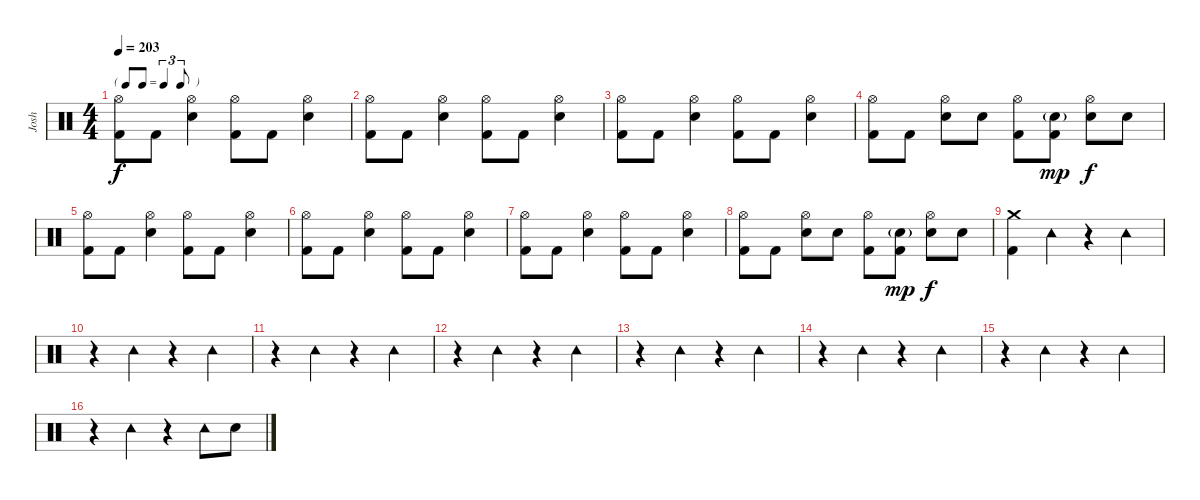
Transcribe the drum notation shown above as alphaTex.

\track ("Josh" "Josh") {instrument percussion}
\staff {score}
\articulation defaults
\ts (4 4)
\tf triplet8th
\tempo 203
\clef neutral
\ks c
("Hi-Hat (open)" "Kick (hit) 2").8{dy f} "Kick (hit) 2".8 ("Hi-Hat (open)" "Electric Snare (hit)").4 ("Hi-Hat (open)" "Kick (hit) 2").8 "Kick (hit) 2".8 ("Hi-Hat (open)" "Electric Snare (hit)").4 |
("Hi-Hat (open)" "Kick (hit) 2").8 "Kick (hit) 2".8 ("Hi-Hat (open)" "Electric Snare (hit)").4 ("Hi-Hat (open)" "Kick (hit) 2").8 "Kick (hit) 2".8 ("Hi-Hat (open)" "Electric Snare (hit)").4 |
("Hi-Hat (open)" "Kick (hit) 2").8 "Kick (hit) 2".8 ("Hi-Hat (open)" "Electric Snare (hit)").4 ("Hi-Hat (open)" "Kick (hit) 2").8 "Kick (hit) 2".8 ("Hi-Hat (open)" "Electric Snare (hit)").4 |
("Hi-Hat (open)" "Kick (hit) 2").8 "Kick (hit) 2".8 ("Hi-Hat (open)" "Electric Snare (hit)").8 "Electric Snare (hit)".8 ("Hi-Hat (open)" "Kick (hit) 2").8 ("Electric Snare (hit)"{g} "Kick (hit) 2").8{dy mp} ("Hi-Hat (open)" "Electric Snare (hit)").8{dy f} "Electric Snare (hit)".8 |
("Hi-Hat (open)" "Kick (hit) 2").8 "Kick (hit) 2".8 ("Hi-Hat (open)" "Electric Snare (hit)").4 ("Hi-Hat (open)" "Kick (hit) 2").8 "Kick (hit) 2".8 ("Hi-Hat (open)" "Electric Snare (hit)").4 |
("Hi-Hat (open)" "Kick (hit) 2").8 "Kick (hit) 2".8 ("Hi-Hat (open)" "Electric Snare (hit)").4 ("Hi-Hat (open)" "Kick (hit) 2").8 "Kick (hit) 2".8 ("Hi-Hat (open)" "Electric Snare (hit)").4 |
("Hi-Hat (open)" "Kick (hit) 2").8 "Kick (hit) 2".8 ("Hi-Hat (open)" "Electric Snare (hit)").4 ("Hi-Hat (open)" "Kick (hit) 2").8 "Kick (hit) 2".8 ("Hi-Hat (open)" "Electric Snare (hit)").4 |
("Hi-Hat (open)" "Kick (hit) 2").8 "Kick (hit) 2".8 ("Hi-Hat (open)" "Electric Snare (hit)").8 "Electric Snare (hit)".8 ("Hi-Hat (open)" "Kick (hit) 2").8 ("Electric Snare (hit)"{g} "Kick (hit) 2").8{dy mp} ("Hi-Hat (open)" "Electric Snare (hit)").8{dy f} "Electric Snare (hit)".8 |
("Crash medium (hit)" "Kick (hit) 2").4 "Tambourine (hit)".4 r.4 "Tambourine (hit)".4 |
r.4 "Tambourine (hit)".4 r.4 "Tambourine (hit)".4 |
r.4 "Tambourine (hit)".4 r.4 "Tambourine (hit)".4 |
r.4 "Tambourine (hit)".4 r.4 "Tambourine (hit)".4 |
r.4 "Tambourine (hit)".4 r.4 "Tambourine (hit)".4 |
r.4 "Tambourine (hit)".4 r.4 "Tambourine (hit)".4 |
r.4 "Tambourine (hit)".4 r.4 "Tambourine (hit)".4 |
r.4 "Tambourine (hit)".4 r.4 "Tambourine (hit)".8 "Electric Snare (hit)".8
